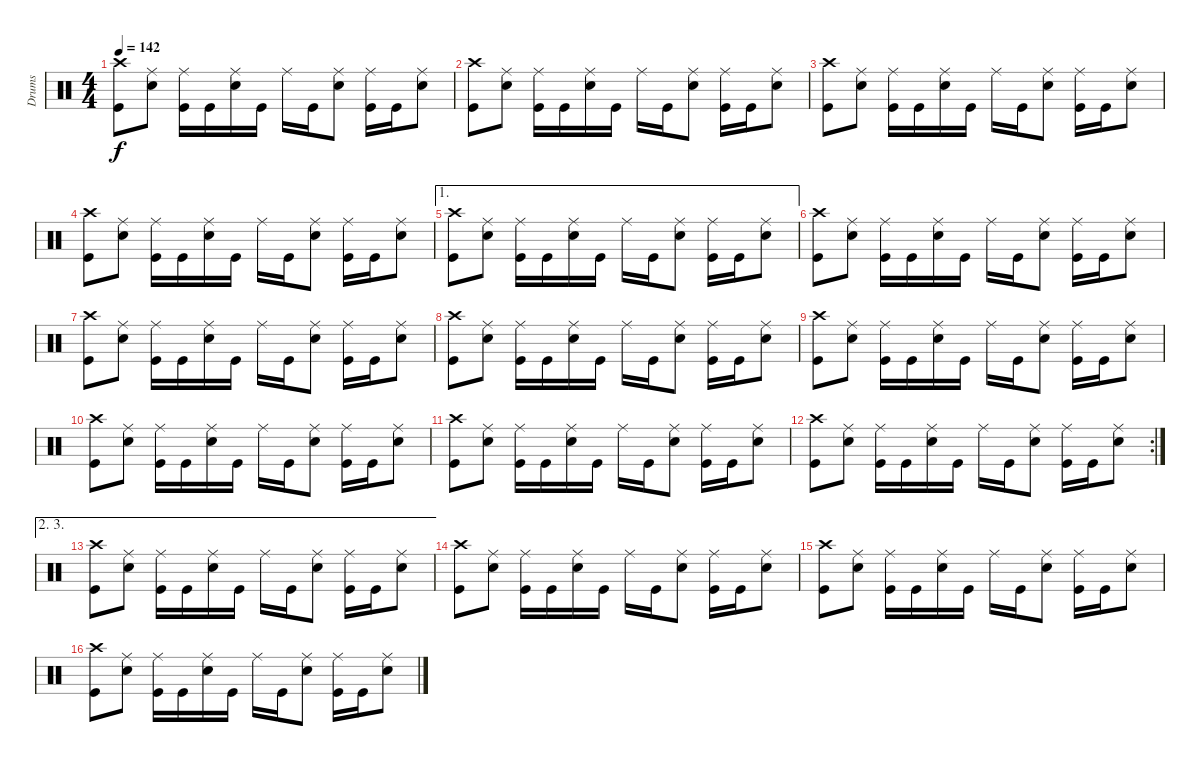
\track ("Drums" "Drums") {instrument percussion}
\staff {score}
\articulation defaults
\ts (4 4)
\tempo 142
\clef neutral
\ks c
("Crash high (hit)" "Kick (hit)").8{dy f} ("Ride (middle)" "Electric Snare (hit)").8 ("Ride (middle)" "Kick (hit)").16 "Kick (hit)".16 ("Ride (middle)" "Electric Snare (hit)").16 "Kick (hit)".16 "Ride (middle)".16 "Kick (hit)".16 ("Ride (middle)" "Electric Snare (hit)").8 ("Ride (middle)" "Kick (hit)").16 "Kick (hit)".16 ("Ride (middle)" "Snare (hit) 2").8 |
("Crash high (hit)" "Kick (hit)").8 ("Ride (middle)" "Electric Snare (hit)").8 ("Ride (middle)" "Kick (hit)").16 "Kick (hit)".16 ("Ride (middle)" "Electric Snare (hit)").16 "Kick (hit)".16 "Ride (middle)".16 "Kick (hit)".16 ("Ride (middle)" "Electric Snare (hit)").8 ("Ride (middle)" "Kick (hit)").16 "Kick (hit)".16 ("Ride (middle)" "Snare (hit) 2").8 |
("Crash high (hit)" "Kick (hit)").8 ("Ride (middle)" "Electric Snare (hit)").8 ("Ride (middle)" "Kick (hit)").16 "Kick (hit)".16 ("Ride (middle)" "Electric Snare (hit)").16 "Kick (hit)".16 "Ride (middle)".16 "Kick (hit)".16 ("Ride (middle)" "Electric Snare (hit)").8 ("Ride (middle)" "Kick (hit)").16 "Kick (hit)".16 ("Ride (middle)" "Snare (hit) 2").8 |
("Crash high (hit)" "Kick (hit)").8 ("Ride (middle)" "Electric Snare (hit)").8 ("Ride (middle)" "Kick (hit)").16 "Kick (hit)".16 ("Ride (middle)" "Electric Snare (hit)").16 "Kick (hit)".16 "Ride (middle)".16 "Kick (hit)".16 ("Ride (middle)" "Electric Snare (hit)").8 ("Ride (middle)" "Kick (hit)").16 "Kick (hit)".16 ("Ride (middle)" "Snare (hit) 2").8 |
\ae 1
("Crash high (hit)" "Kick (hit)").8 ("Ride (middle)" "Electric Snare (hit)").8 ("Ride (middle)" "Kick (hit)").16 "Kick (hit)".16 ("Ride (middle)" "Electric Snare (hit)").16 "Kick (hit)".16 "Ride (middle)".16 "Kick (hit)".16 ("Ride (middle)" "Electric Snare (hit)").8 ("Ride (middle)" "Kick (hit)").16 "Kick (hit)".16 ("Ride (middle)" "Snare (hit) 2").8 |
("Crash high (hit)" "Kick (hit)").8 ("Ride (middle)" "Electric Snare (hit)").8 ("Ride (middle)" "Kick (hit)").16 "Kick (hit)".16 ("Ride (middle)" "Electric Snare (hit)").16 "Kick (hit)".16 "Ride (middle)".16 "Kick (hit)".16 ("Ride (middle)" "Electric Snare (hit)").8 ("Ride (middle)" "Kick (hit)").16 "Kick (hit)".16 ("Ride (middle)" "Snare (hit) 2").8 |
("Crash high (hit)" "Kick (hit)").8 ("Ride (middle)" "Electric Snare (hit)").8 ("Ride (middle)" "Kick (hit)").16 "Kick (hit)".16 ("Ride (middle)" "Electric Snare (hit)").16 "Kick (hit)".16 "Ride (middle)".16 "Kick (hit)".16 ("Ride (middle)" "Electric Snare (hit)").8 ("Ride (middle)" "Kick (hit)").16 "Kick (hit)".16 ("Ride (middle)" "Snare (hit) 2").8 |
("Crash high (hit)" "Kick (hit)").8 ("Ride (middle)" "Electric Snare (hit)").8 ("Ride (middle)" "Kick (hit)").16 "Kick (hit)".16 ("Ride (middle)" "Electric Snare (hit)").16 "Kick (hit)".16 "Ride (middle)".16 "Kick (hit)".16 ("Ride (middle)" "Electric Snare (hit)").8 ("Ride (middle)" "Kick (hit)").16 "Kick (hit)".16 ("Ride (middle)" "Snare (hit) 2").8 |
("Crash high (hit)" "Kick (hit)").8 ("Ride (middle)" "Electric Snare (hit)").8 ("Ride (middle)" "Kick (hit)").16 "Kick (hit)".16 ("Ride (middle)" "Electric Snare (hit)").16 "Kick (hit)".16 "Ride (middle)".16 "Kick (hit)".16 ("Ride (middle)" "Electric Snare (hit)").8 ("Ride (middle)" "Kick (hit)").16 "Kick (hit)".16 ("Ride (middle)" "Snare (hit) 2").8 |
("Crash high (hit)" "Kick (hit)").8 ("Ride (middle)" "Electric Snare (hit)").8 ("Ride (middle)" "Kick (hit)").16 "Kick (hit)".16 ("Ride (middle)" "Electric Snare (hit)").16 "Kick (hit)".16 "Ride (middle)".16 "Kick (hit)".16 ("Ride (middle)" "Electric Snare (hit)").8 ("Ride (middle)" "Kick (hit)").16 "Kick (hit)".16 ("Ride (middle)" "Snare (hit) 2").8 |
("Crash high (hit)" "Kick (hit)").8 ("Ride (middle)" "Electric Snare (hit)").8 ("Ride (middle)" "Kick (hit)").16 "Kick (hit)".16 ("Ride (middle)" "Electric Snare (hit)").16 "Kick (hit)".16 "Ride (middle)".16 "Kick (hit)".16 ("Ride (middle)" "Electric Snare (hit)").8 ("Ride (middle)" "Kick (hit)").16 "Kick (hit)".16 ("Ride (middle)" "Snare (hit) 2").8 |
\rc 2
("Crash high (hit)" "Kick (hit)").8 ("Ride (middle)" "Electric Snare (hit)").8 ("Ride (middle)" "Kick (hit)").16 "Kick (hit)".16 ("Ride (middle)" "Electric Snare (hit)").16 "Kick (hit)".16 "Ride (middle)".16 "Kick (hit)".16 ("Ride (middle)" "Electric Snare (hit)").8 ("Ride (middle)" "Kick (hit)").16 "Kick (hit)".16 ("Ride (middle)" "Snare (hit) 2").8 |
\ae (2 3)
("Crash high (hit)" "Kick (hit)").8 ("Ride (middle)" "Electric Snare (hit)").8 ("Ride (middle)" "Kick (hit)").16 "Kick (hit)".16 ("Ride (middle)" "Electric Snare (hit)").16 "Kick (hit)".16 "Ride (middle)".16 "Kick (hit)".16 ("Ride (middle)" "Electric Snare (hit)").8 ("Ride (middle)" "Kick (hit)").16 "Kick (hit)".16 ("Ride (middle)" "Snare (hit) 2").8 |
("Crash high (hit)" "Kick (hit)").8 ("Ride (middle)" "Electric Snare (hit)").8 ("Ride (middle)" "Kick (hit)").16 "Kick (hit)".16 ("Ride (middle)" "Electric Snare (hit)").16 "Kick (hit)".16 "Ride (middle)".16 "Kick (hit)".16 ("Ride (middle)" "Electric Snare (hit)").8 ("Ride (middle)" "Kick (hit)").16 "Kick (hit)".16 ("Ride (middle)" "Snare (hit) 2").8 |
("Crash high (hit)" "Kick (hit)").8 ("Ride (middle)" "Electric Snare (hit)").8 ("Ride (middle)" "Kick (hit)").16 "Kick (hit)".16 ("Ride (middle)" "Electric Snare (hit)").16 "Kick (hit)".16 "Ride (middle)".16 "Kick (hit)".16 ("Ride (middle)" "Electric Snare (hit)").8 ("Ride (middle)" "Kick (hit)").16 "Kick (hit)".16 ("Ride (middle)" "Snare (hit) 2").8 |
("Crash high (hit)" "Kick (hit)").8 ("Ride (middle)" "Electric Snare (hit)").8 ("Ride (middle)" "Kick (hit)").16 "Kick (hit)".16 ("Ride (middle)" "Electric Snare (hit)").16 "Kick (hit)".16 "Ride (middle)".16 "Kick (hit)".16 ("Ride (middle)" "Electric Snare (hit)").8 ("Ride (middle)" "Kick (hit)").16 "Kick (hit)".16 ("Ride (middle)" "Snare (hit) 2").8
